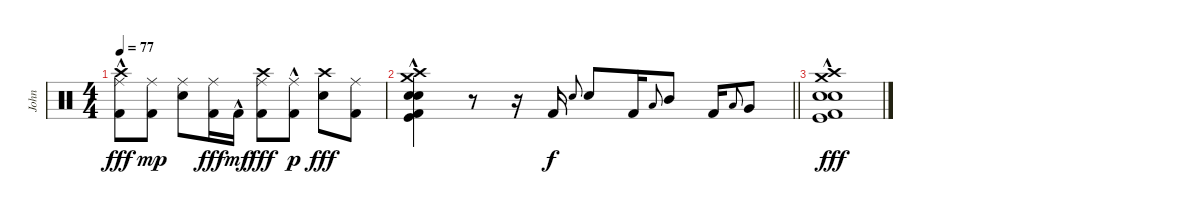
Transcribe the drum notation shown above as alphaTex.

\track ("John" "John") {instrument percussion}
\staff {score}
\articulation defaults
\ts (4 4)
\tempo 77
\clef neutral
\ks c
("Ride (middle)" "Crash high (hit)"{hac} "Kick (hit) 2"{hac}).8{dy fff} ("Ride (middle)" "Kick (hit) 2").8{dy mp} ("Ride (middle)" "Electric Snare (hit)").8 ("Ride (middle)" "Kick (hit) 2").16{dy fff} "Kick (hit) 2"{hac}.16{dy mf} ("Ride (middle)" "Crash high (hit)" "Kick (hit) 2").8{dy fff} ("Ride (middle)"{hac} "Kick (hit) 2"{hac}).8{dy p} ("Crash high (hit)" "Electric Snare (hit)").8{dy fff} ("Ride (middle)" "Kick (hit) 2").8 |
\barLineRight lightlight
("Crash medium (hit)"{hac} "Crash high (hit)"{hac} "Kick (hit)"{hac} "Snare (hit) 2"{hac} "Electric Snare (hit)"{hac} "Kick (hit) 2"{hac}).4 r.8 r.16 "Kick (hit) 2".16{dy f} "Snare (hit) 2".8{gr onbeat} "Electric Snare (hit)".8 "Kick (hit) 2".16 "Low Tom (hit)".8{gr onbeat} "Mid Tom (hit)".8 "Kick (hit) 2".16 "Low Floor Tom (hit)".8{gr onbeat} "Very Low Tom (hit)".8 |
("Crash medium (hit)"{hac} "Crash high (hit)"{hac} "Kick (hit)"{hac} "Snare (hit) 2"{hac} "Electric Snare (hit)"{hac} "Kick (hit) 2"{hac}).1{dy fff}
